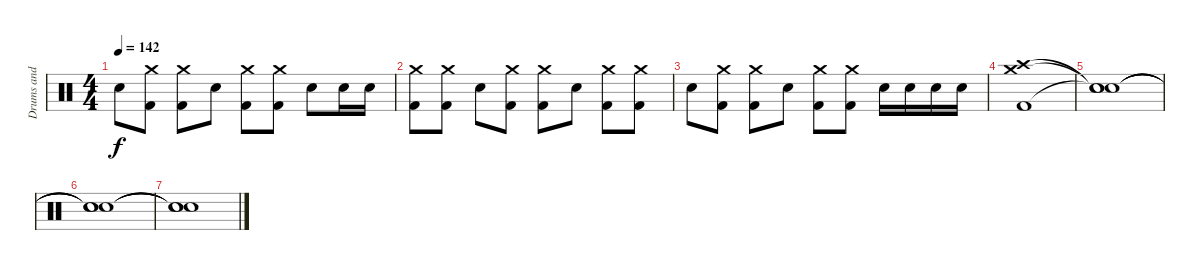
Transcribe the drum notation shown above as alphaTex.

\track ("Drums and Percussion" "Drums and ") {instrument percussion}
\staff {score}
\articulation defaults
\ts (4 4)
\tempo 142
\clef neutral
\ks c "Electric Snare (hit)".8{dy f}
("Crash medium (hit)" "Kick (hit) 2").8 ("Crash medium (hit)" "Kick (hit) 2").8 "Electric Snare (hit)".8 ("Crash medium (hit)" "Kick (hit) 2").8 ("Crash medium (hit)" "Kick (hit) 2").8 "Electric Snare (hit)".8 "Electric Snare (hit)".16 "Electric Snare (hit)".16 |
("Crash medium (hit)" "Kick (hit) 2").8 ("Crash medium (hit)" "Kick (hit) 2").8 "Electric Snare (hit)".8 ("Crash medium (hit)" "Kick (hit) 2").8 ("Crash medium (hit)" "Kick (hit) 2").8 "Electric Snare (hit)".8 ("Crash medium (hit)" "Kick (hit) 2").8 ("Crash medium (hit)" "Kick (hit) 2").8 |
"Electric Snare (hit)".8 ("Crash medium (hit)" "Kick (hit) 2").8 ("Crash medium (hit)" "Kick (hit) 2").8 "Electric Snare (hit)".8 ("Crash medium (hit)" "Kick (hit) 2").8 ("Crash medium (hit)" "Kick (hit) 2").8 "Electric Snare (hit)".16 "Electric Snare (hit)".16 "Electric Snare (hit)".16 "Electric Snare (hit)".16 |
("Crash medium (hit)" "Crash high (hit)" "Kick (hit) 2").1{volume 0} |
("Snare (hit)"{t} "Snare (hit)"{t} "Snare (hit)"{t}).1 |
("Snare (hit)"{t} "Snare (hit)"{t} "Snare (hit)"{t}).1 |
("Snare (hit)"{t} "Snare (hit)"{t} "Snare (hit)"{t}).1
